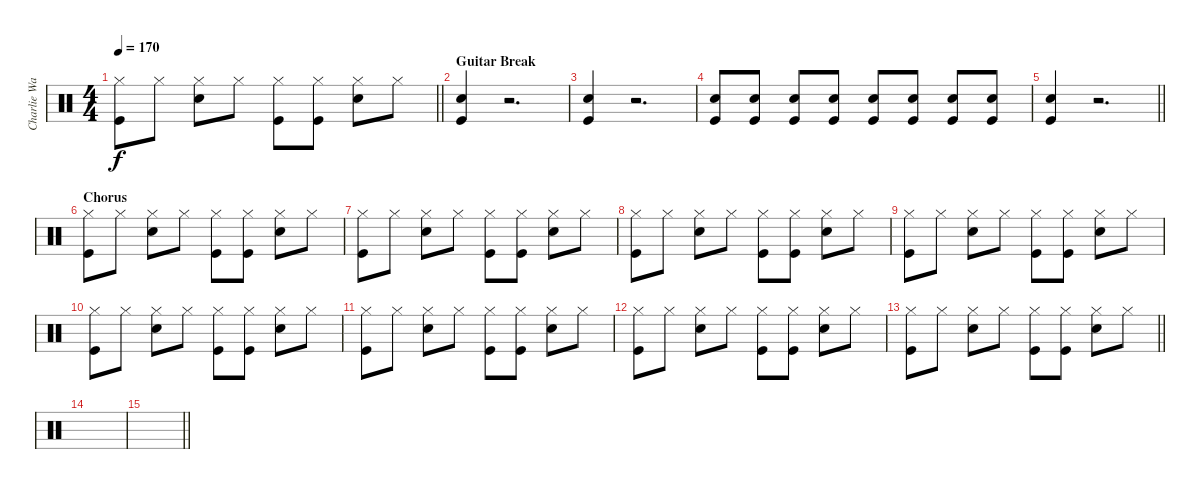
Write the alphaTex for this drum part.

\track ("Charlie Watts" "Charlie Wa") {instrument percussion}
\staff {score}
\articulation defaults
\ts (4 4)
\tempo 170
\clef neutral
\barLineRight lightlight
\ks c
("Hi-Hat (closed)" "Kick (hit)").8{dy f} "Hi-Hat (closed)".8 ("Hi-Hat (closed)" "Snare (hit) 2").8 "Hi-Hat (closed)".8 ("Hi-Hat (closed)" "Kick (hit)").8 ("Hi-Hat (closed)" "Kick (hit)").8 ("Hi-Hat (closed)" "Snare (hit) 2").8 "Hi-Hat (closed)".8 |
\section ("" "Guitar Break")
("Snare (hit) 2" "Kick (hit)").4 r.2{d} |
("Snare (hit) 2" "Kick (hit)").4 r.2{d} |
("Snare (hit) 2" "Kick (hit)").8 ("Snare (hit) 2" "Kick (hit)").8 ("Snare (hit) 2" "Kick (hit)").8 ("Snare (hit) 2" "Kick (hit)").8 ("Snare (hit) 2" "Kick (hit)").8 ("Snare (hit) 2" "Kick (hit)").8 ("Snare (hit) 2" "Kick (hit)").8 ("Snare (hit) 2" "Kick (hit)").8 |
\barLineRight lightlight
("Snare (hit) 2" "Kick (hit)").4 r.2{d} |
\section ("" "Chorus")
("Hi-Hat (closed)" "Kick (hit)").8 "Hi-Hat (closed)".8 ("Hi-Hat (closed)" "Snare (hit) 2").8 "Hi-Hat (closed)".8 ("Hi-Hat (closed)" "Kick (hit)").8 ("Hi-Hat (closed)" "Kick (hit)").8 ("Hi-Hat (closed)" "Snare (hit) 2").8 "Hi-Hat (closed)".8 |
("Hi-Hat (closed)" "Kick (hit)").8 "Hi-Hat (closed)".8 ("Hi-Hat (closed)" "Snare (hit) 2").8 "Hi-Hat (closed)".8 ("Hi-Hat (closed)" "Kick (hit)").8 ("Hi-Hat (closed)" "Kick (hit)").8 ("Hi-Hat (closed)" "Snare (hit) 2").8 "Hi-Hat (closed)".8 |
("Hi-Hat (closed)" "Kick (hit)").8 "Hi-Hat (closed)".8 ("Hi-Hat (closed)" "Snare (hit) 2").8 "Hi-Hat (closed)".8 ("Hi-Hat (closed)" "Kick (hit)").8 ("Hi-Hat (closed)" "Kick (hit)").8 ("Hi-Hat (closed)" "Snare (hit) 2").8 "Hi-Hat (closed)".8 |
("Hi-Hat (closed)" "Kick (hit)").8 "Hi-Hat (closed)".8 ("Hi-Hat (closed)" "Snare (hit) 2").8 "Hi-Hat (closed)".8 ("Hi-Hat (closed)" "Kick (hit)").8 ("Hi-Hat (closed)" "Kick (hit)").8 ("Hi-Hat (closed)" "Snare (hit) 2").8 "Hi-Hat (closed)".8 |
("Hi-Hat (closed)" "Kick (hit)").8 "Hi-Hat (closed)".8 ("Hi-Hat (closed)" "Snare (hit) 2").8 "Hi-Hat (closed)".8 ("Hi-Hat (closed)" "Kick (hit)").8 ("Hi-Hat (closed)" "Kick (hit)").8 ("Hi-Hat (closed)" "Snare (hit) 2").8 "Hi-Hat (closed)".8 |
("Hi-Hat (closed)" "Kick (hit)").8 "Hi-Hat (closed)".8 ("Hi-Hat (closed)" "Snare (hit) 2").8 "Hi-Hat (closed)".8 ("Hi-Hat (closed)" "Kick (hit)").8 ("Hi-Hat (closed)" "Kick (hit)").8 ("Hi-Hat (closed)" "Snare (hit) 2").8 "Hi-Hat (closed)".8 |
("Hi-Hat (closed)" "Kick (hit)").8 "Hi-Hat (closed)".8 ("Hi-Hat (closed)" "Snare (hit) 2").8 "Hi-Hat (closed)".8 ("Hi-Hat (closed)" "Kick (hit)").8 ("Hi-Hat (closed)" "Kick (hit)").8 ("Hi-Hat (closed)" "Snare (hit) 2").8 "Hi-Hat (closed)".8 |
\barLineRight lightlight
("Hi-Hat (closed)" "Kick (hit)").8 "Hi-Hat (closed)".8 ("Hi-Hat (closed)" "Snare (hit) 2").8 "Hi-Hat (closed)".8 ("Hi-Hat (closed)" "Kick (hit)").8 ("Hi-Hat (closed)" "Kick (hit)").8 ("Hi-Hat (closed)" "Snare (hit) 2").8 "Hi-Hat (closed)".8 |
|
\barLineRight lightlight
